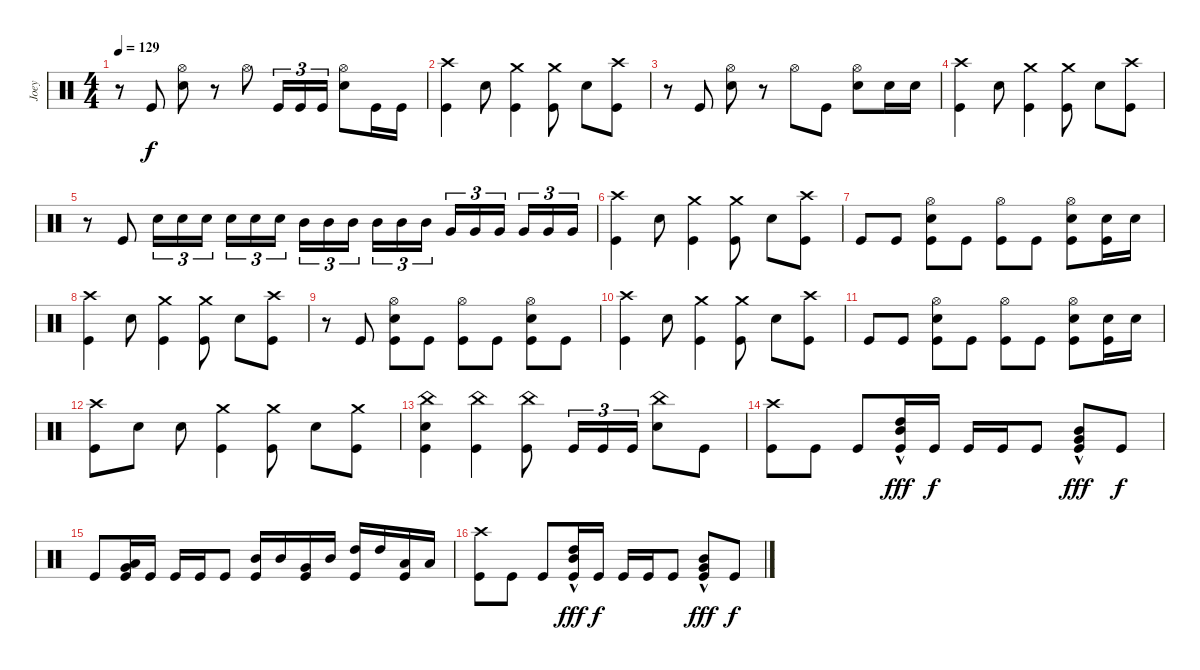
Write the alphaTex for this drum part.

\track ("Joey" "Joey") {instrument percussion}
\staff {score}
\articulation defaults
\ts (4 4)
\tempo 129
\clef neutral
\ks c
r.8{dy f} "Kick (hit)".8 ("Snare (hit) 2" "Hi-Hat (open)").8 r.8 "Hi-Hat (open)".8 "Kick (hit)".16{tu (3 2)} "Kick (hit)".16{tu (3 2)} "Kick (hit)".16{tu (3 2)} ("Snare (hit) 2" "Hi-Hat (open)").8 "Kick (hit)".16 "Kick (hit)".16 |
("Kick (hit)" "Crash high (hit)").4 "Snare (hit) 2".8 ("Kick (hit)" "Crash medium (hit)").4 ("Kick (hit)" "Crash medium (hit)").8 "Snare (hit) 2".8 ("Kick (hit)" "Crash high (hit)").8 |
r.8 "Kick (hit)".8 ("Snare (hit) 2" "Hi-Hat (open)").8 r.8 "Hi-Hat (open)".8 "Kick (hit)".8 ("Snare (hit) 2" "Hi-Hat (open)").8 "Snare (hit) 2".16 "Snare (hit) 2".16 |
("Kick (hit)" "Crash high (hit)").4 "Snare (hit) 2".8 ("Kick (hit)" "Crash medium (hit)").4 ("Kick (hit)" "Crash medium (hit)").8 "Snare (hit) 2".8 ("Kick (hit)" "Crash high (hit)").8 |
r.8 "Kick (hit)".8 "Snare (hit) 2".16{tu (3 2)} "Snare (hit) 2".16{tu (3 2)} "Snare (hit) 2".16{tu (3 2) beam splitsecondary} "Snare (hit) 2".16{tu (3 2)} "Snare (hit) 2".16{tu (3 2)} "Snare (hit) 2".16{tu (3 2)} "Mid Tom (hit)".16{tu (3 2)} "Mid Tom (hit)".16{tu (3 2)} "Mid Tom (hit)".16{tu (3 2) beam splitsecondary} "Mid Tom (hit)".16{tu (3 2)} "Mid Tom (hit)".16{tu (3 2)} "Mid Tom (hit)".16{tu (3 2)} "Very Low Tom (hit)".16{tu (3 2)} "Very Low Tom (hit)".16{tu (3 2)} "Very Low Tom (hit)".16{tu (3 2) beam splitsecondary} "Very Low Tom (hit)".16{tu (3 2)} "Very Low Tom (hit)".16{tu (3 2)} "Very Low Tom (hit)".16{tu (3 2)} |
("Kick (hit)" "Crash high (hit)").4 "Snare (hit) 2".8 ("Kick (hit)" "Crash medium (hit)").4 ("Kick (hit)" "Crash medium (hit)").8 "Snare (hit) 2".8 ("Kick (hit)" "Crash high (hit)").8 |
"Kick (hit)".8 "Kick (hit)".8 ("Kick (hit)" "Snare (hit) 2" "Hi-Hat (open)").8 "Kick (hit)".8 ("Kick (hit)" "Hi-Hat (open)").8 "Kick (hit)".8 ("Kick (hit)" "Snare (hit) 2" "Hi-Hat (open)").8 ("Snare (hit) 2" "Kick (hit)").16 "Snare (hit) 2".16 |
("Kick (hit)" "Crash high (hit)").4 "Snare (hit) 2".8 ("Kick (hit)" "Crash medium (hit)").4 ("Kick (hit)" "Crash medium (hit)").8 "Snare (hit) 2".8 ("Kick (hit)" "Crash high (hit)").8 |
r.8 "Kick (hit)".8 ("Kick (hit)" "Snare (hit) 2" "Hi-Hat (open)").8 "Kick (hit)".8 ("Kick (hit)" "Hi-Hat (open)").8 "Kick (hit)".8 ("Kick (hit)" "Snare (hit) 2" "Hi-Hat (open)").8 "Kick (hit)".8 |
("Kick (hit)" "Crash high (hit)").4 "Snare (hit) 2".8 ("Kick (hit)" "Crash medium (hit)").4 ("Kick (hit)" "Crash medium (hit)").8 "Snare (hit) 2".8 ("Kick (hit)" "Crash high (hit)").8 |
"Kick (hit)".8 "Kick (hit)".8 ("Kick (hit)" "Snare (hit) 2" "Hi-Hat (open)").8 "Kick (hit)".8 ("Kick (hit)" "Hi-Hat (open)").8 "Kick (hit)".8 ("Kick (hit)" "Snare (hit) 2" "Hi-Hat (open)").8 ("Snare (hit) 2" "Kick (hit)").16 "Snare (hit) 2".16 |
("Kick (hit)" "Crash high (hit)").8 "Snare (hit) 2".8 "Snare (hit) 2".8 ("Kick (hit)" "Crash medium (hit)").4 ("Kick (hit)" "Crash medium (hit)").8 "Snare (hit) 2".8 ("Kick (hit)" "Crash medium (hit)").8 |
("Kick (hit)" "Snare (hit) 2" "China (hit)").4 ("China (hit)" "Kick (hit)").4 ("China (hit)" "Kick (hit)").8 "Kick (hit)".16{tu (3 2)} "Kick (hit)".16{tu (3 2)} "Kick (hit)".16{tu (3 2)} ("Snare (hit) 2" "China (hit)").8 "Kick (hit)".8 |
("Crash high (hit)" "Kick (hit)").8 "Kick (hit)".8 "Kick (hit)".8 ("Kick (hit)" "High Tom (hit)"{hac} "Mid Tom (hit)"{hac}).16{dy fff} "Kick (hit)".16{dy f} "Kick (hit)".16 "Kick (hit)".16 "Kick (hit)".8 ("Kick (hit)" "Very Low Tom (hit)"{hac} "Mid Tom (hit)"{hac}).8{dy fff} "Kick (hit)".8{dy f} |
"Kick (hit)".8 ("Kick (hit)" "Low Floor Tom (hit)" "Very Low Tom (hit)").16 "Kick (hit)".16 "Kick (hit)".16 "Kick (hit)".16 "Kick (hit)".8 ("Kick (hit)" "Mid Tom (hit)").16 "Mid Tom (hit)".16 ("Kick (hit)" "Very Low Tom (hit)").16 "Mid Tom (hit)".16 ("Kick (hit)" "High Tom (hit)").16 "High Tom (hit)".16 ("Kick (hit)" "Low Floor Tom (hit)").16 "Low Floor Tom (hit)".16 |
("Crash high (hit)" "Kick (hit)").8 "Kick (hit)".8 "Kick (hit)".8 ("Kick (hit)" "High Tom (hit)"{hac} "Mid Tom (hit)"{hac}).16{dy fff} "Kick (hit)".16{dy f} "Kick (hit)".16 "Kick (hit)".16 "Kick (hit)".8 ("Kick (hit)" "Very Low Tom (hit)"{hac} "Mid Tom (hit)"{hac}).8{dy fff} "Kick (hit)".8{dy f}
